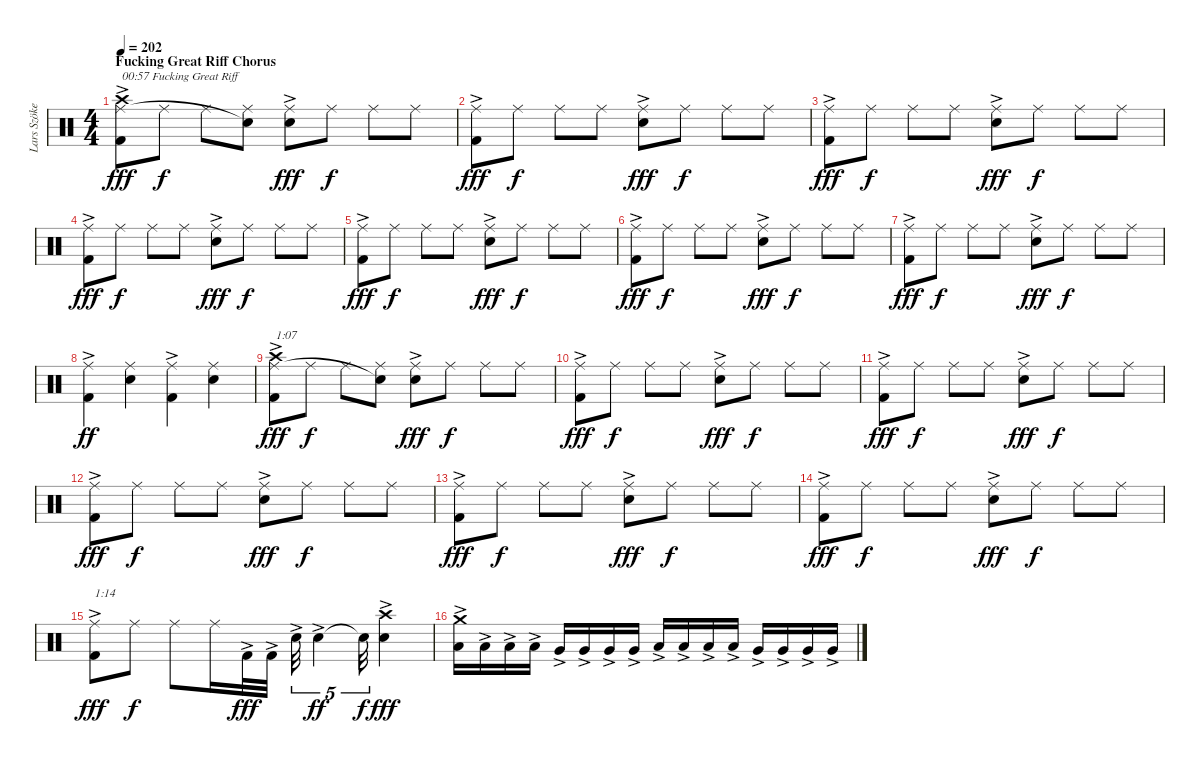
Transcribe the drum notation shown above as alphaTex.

\track ("Lars Szöke" "Lars Szöke") {instrument percussion}
\staff {score}
\articulation defaults
\ts (4 4)
\section ("" "Fucking Great Riff Chorus")
\tempo 202
\clef neutral
\ks c
("Kick (hit) 2"{ac} "Ride (middle)" "Crash high (hit)"{ac}).8{txt "00:57 Fucking Great Riff" dy fff} "Ride (middle)".8{dy f} "Ride (middle)".8 ("Ride (middle)" "Snare (hit)"{t}).8 ("Snare (hit) 2"{ac} "Ride (middle)").8{dy fff} "Ride (middle)".8{dy f} "Ride (middle)".8 "Ride (middle)".8 |
("Kick (hit) 2"{ac} "Ride (middle)").8{dy fff} "Ride (middle)".8{dy f} "Ride (middle)".8 "Ride (middle)".8 ("Snare (hit) 2"{ac} "Ride (middle)").8{dy fff} "Ride (middle)".8{dy f} "Ride (middle)".8 "Ride (middle)".8 |
("Kick (hit) 2"{ac} "Ride (middle)").8{dy fff} "Ride (middle)".8{dy f} "Ride (middle)".8 "Ride (middle)".8 ("Snare (hit) 2"{ac} "Ride (middle)").8{dy fff} "Ride (middle)".8{dy f} "Ride (middle)".8 "Ride (middle)".8 |
("Kick (hit) 2"{ac} "Ride (middle)").8{dy fff} "Ride (middle)".8{dy f} "Ride (middle)".8 "Ride (middle)".8 ("Snare (hit) 2"{ac} "Ride (middle)").8{dy fff} "Ride (middle)".8{dy f} "Ride (middle)".8 "Ride (middle)".8 |
("Kick (hit) 2"{ac} "Ride (middle)").8{dy fff} "Ride (middle)".8{dy f} "Ride (middle)".8 "Ride (middle)".8 ("Snare (hit) 2"{ac} "Ride (middle)").8{dy fff} "Ride (middle)".8{dy f} "Ride (middle)".8 "Ride (middle)".8 |
("Kick (hit) 2"{ac} "Ride (middle)").8{dy fff} "Ride (middle)".8{dy f} "Ride (middle)".8 "Ride (middle)".8 ("Snare (hit) 2"{ac} "Ride (middle)").8{dy fff} "Ride (middle)".8{dy f} "Ride (middle)".8 "Ride (middle)".8 |
("Kick (hit) 2"{ac} "Ride (middle)").8{dy fff} "Ride (middle)".8{dy f} "Ride (middle)".8 "Ride (middle)".8 ("Snare (hit) 2"{ac} "Ride (middle)").8{dy fff} "Ride (middle)".8{dy f} "Ride (middle)".8 "Ride (middle)".8 |
("Kick (hit) 2"{ac} "Ride (middle)").4{dy ff} ("Snare (hit) 2" "Ride (middle)").4 ("Kick (hit) 2"{ac} "Ride (middle)").4 ("Snare (hit) 2" "Ride (middle)").4 |
("Kick (hit) 2"{ac} "Ride (middle)" "Crash high (hit)"{ac}).8{txt "1:07" dy fff} "Ride (middle)".8{dy f} "Ride (middle)".8 ("Ride (middle)" "Snare (hit)"{t}).8 ("Snare (hit) 2"{ac} "Ride (middle)").8{dy fff} "Ride (middle)".8{dy f} "Ride (middle)".8 "Ride (middle)".8 |
("Kick (hit) 2"{ac} "Ride (middle)").8{dy fff} "Ride (middle)".8{dy f} "Ride (middle)".8 "Ride (middle)".8 ("Snare (hit) 2"{ac} "Ride (middle)").8{dy fff} "Ride (middle)".8{dy f} "Ride (middle)".8 "Ride (middle)".8 |
("Kick (hit) 2"{ac} "Ride (middle)").8{dy fff} "Ride (middle)".8{dy f} "Ride (middle)".8 "Ride (middle)".8 ("Snare (hit) 2"{ac} "Ride (middle)").8{dy fff} "Ride (middle)".8{dy f} "Ride (middle)".8 "Ride (middle)".8 |
("Kick (hit) 2"{ac} "Ride (middle)").8{dy fff} "Ride (middle)".8{dy f} "Ride (middle)".8 "Ride (middle)".8 ("Snare (hit) 2"{ac} "Ride (middle)").8{dy fff} "Ride (middle)".8{dy f} "Ride (middle)".8 "Ride (middle)".8 |
("Kick (hit) 2"{ac} "Ride (middle)").8{dy fff} "Ride (middle)".8{dy f} "Ride (middle)".8 "Ride (middle)".8 ("Snare (hit) 2"{ac} "Ride (middle)").8{dy fff} "Ride (middle)".8{dy f} "Ride (middle)".8 "Ride (middle)".8 |
("Kick (hit) 2"{ac} "Ride (middle)").8{dy fff} "Ride (middle)".8{dy f} "Ride (middle)".8 "Ride (middle)".8 ("Snare (hit) 2"{ac} "Ride (middle)").8{dy fff} "Ride (middle)".8{dy f} "Ride (middle)".8 "Ride (middle)".8 |
("Kick (hit) 2"{ac} "Ride (middle)").8{txt "1:14" dy fff} "Ride (middle)".8{dy f} "Ride (middle)".8 "Ride (middle)".16 "Kick (hit) 2"{ac}.32{dy fff} "Kick (hit) 2"{ac}.32 "Snare (hit) 2"{ac}.32{tu (5 4)} "Snare (hit) 2"{ac}.4{tu (5 4) dy ff} "Snare (hit)"{t}.32{tu (5 4) dy f} ("Snare (hit) 2"{ac} "Crash high (hit)"{ac}).4{dy fff} |
("Low Tom (hit)"{ac} "Crash medium (hit)"{ac}).16 "Low Tom (hit)"{ac}.16 "Low Tom (hit)"{ac}.16 "Low Tom (hit)"{ac}.16 "Very Low Tom (hit)"{ac}.16 "Very Low Tom (hit)"{ac}.16 "Very Low Tom (hit)"{ac}.16 "Very Low Tom (hit)"{ac}.16 "Low Tom (hit)"{ac}.16 "Low Tom (hit)"{ac}.16 "Low Tom (hit)"{ac}.16 "Low Tom (hit)"{ac}.16 "Very Low Tom (hit)"{ac}.16 "Very Low Tom (hit)"{ac}.16 "Very Low Tom (hit)"{ac}.16 "Very Low Tom (hit)"{ac}.16
